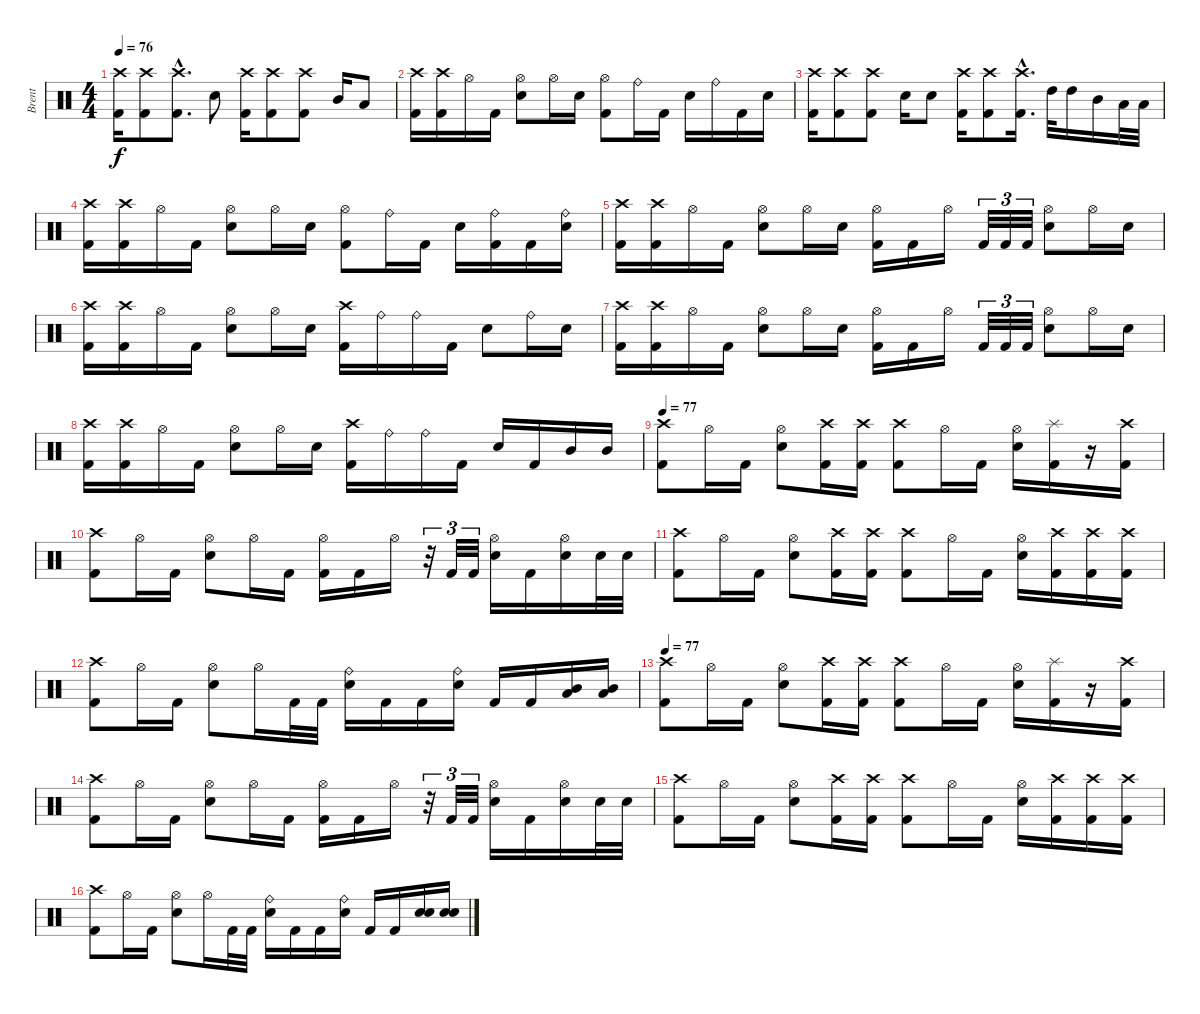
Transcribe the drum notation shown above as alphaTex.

\track ("Brent" "Brent") {instrument percussion}
\staff {score}
\articulation defaults
\ts (4 4)
\tempo 76
\clef neutral
\ks c
("Crash high (hit)" "Kick (hit) 2").16{dy f} ("Crash high (hit)" "Kick (hit) 2").8 ("Crash high (hit)"{hac} "Kick (hit) 2"{hac}).8{d} "Snare (hit) 2".8 ("Crash high (hit)" "Kick (hit) 2").16 ("Crash high (hit)" "Kick (hit) 2").8 ("Crash high (hit)" "Kick (hit) 2").8 "Mid Tom (hit)".16 "Low Tom (hit)".8 |
("Crash high (hit)" "Kick (hit) 2").16 ("Crash high (hit)" "Kick (hit) 2").16 "Hi-Hat (open)".16 "Kick (hit) 2".16 ("Hi-Hat (open)" "Snare (hit) 2").8 "Hi-Hat (open)".16 "Snare (hit) 2".16 ("Hi-Hat (open)" "Kick (hit) 2").8 "Ride (bell)".16 "Kick (hit) 2".16 "Snare (hit) 2".16 "Ride (bell)".16 "Kick (hit) 2".16 "Snare (hit) 2".16 |
("Crash high (hit)" "Kick (hit) 2").16 ("Crash high (hit)" "Kick (hit) 2").8 ("Crash high (hit)" "Kick (hit) 2").8 "Snare (hit) 2".16 "Snare (hit) 2".8 ("Crash high (hit)" "Kick (hit) 2").16 ("Crash high (hit)" "Kick (hit) 2").8 ("Crash high (hit)"{hac} "Kick (hit) 2"{hac}).16{d} "High Tom (hit)".32 "High Tom (hit)".16 "Mid Tom (hit)".16 "Low Tom (hit)".32 "Low Tom (hit)".32 |
("Crash high (hit)" "Kick (hit) 2").16 ("Crash high (hit)" "Kick (hit) 2").16 "Hi-Hat (open)".16 "Kick (hit) 2".16 ("Hi-Hat (open)" "Snare (hit) 2").8 "Hi-Hat (open)".16 "Snare (hit) 2".16 ("Hi-Hat (open)" "Kick (hit) 2").8 "Ride (bell)".16 "Kick (hit) 2".16 "Snare (hit) 2".16 ("Ride (bell)" "Kick (hit) 2").16 "Kick (hit) 2".16 ("Ride (bell)" "Snare (hit) 2").16 |
("Crash high (hit)" "Kick (hit) 2").16 ("Crash high (hit)" "Kick (hit) 2").16 "Hi-Hat (open)".16 "Kick (hit) 2".16 ("Hi-Hat (open)" "Snare (hit) 2").8 "Hi-Hat (open)".16 "Snare (hit) 2".16 ("Hi-Hat (open)" "Kick (hit) 2").16 "Kick (hit) 2".16 "Hi-Hat (open)".16 "Kick (hit) 2".32{tu (3 2)} "Kick (hit) 2".32{tu (3 2)} "Kick (hit) 2".32{tu (3 2)} ("Hi-Hat (open)" "Snare (hit) 2").8 "Hi-Hat (open)".16 "Snare (hit) 2".16 |
("Crash high (hit)" "Kick (hit) 2").16 ("Crash high (hit)" "Kick (hit) 2").16 "Hi-Hat (open)".16 "Kick (hit) 2".16 ("Hi-Hat (open)" "Snare (hit) 2").8 "Hi-Hat (open)".16 "Snare (hit) 2".16 ("Crash high (hit)" "Kick (hit) 2").16 "Ride (bell)".16 "Ride (bell)".16 "Kick (hit) 2".16 "Snare (hit) 2".8 "Ride (bell)".16 "Snare (hit) 2".16 |
("Crash high (hit)" "Kick (hit) 2").16 ("Crash high (hit)" "Kick (hit) 2").16 "Hi-Hat (open)".16 "Kick (hit) 2".16 ("Hi-Hat (open)" "Snare (hit) 2").8 "Hi-Hat (open)".16 "Snare (hit) 2".16 ("Hi-Hat (open)" "Kick (hit) 2").16 "Kick (hit) 2".16 "Hi-Hat (open)".16 "Kick (hit) 2".32{tu (3 2)} "Kick (hit) 2".32{tu (3 2)} "Kick (hit) 2".32{tu (3 2)} ("Hi-Hat (open)" "Snare (hit) 2").8 "Hi-Hat (open)".16 "Snare (hit) 2".16 |
("Crash high (hit)" "Kick (hit) 2").16 ("Crash high (hit)" "Kick (hit) 2").16 "Hi-Hat (open)".16 "Kick (hit) 2".16 ("Hi-Hat (open)" "Snare (hit) 2").8 "Hi-Hat (open)".16 "Snare (hit) 2".16 ("Crash high (hit)" "Kick (hit) 2").16 "Ride (bell)".16 "Ride (bell)".16 "Kick (hit) 2".16 "Snare (hit) 2".16 "Kick (hit) 2".16 "Mid Tom (hit)".16 "Mid Tom (hit)".16 |
\tempo 77
("Crash high (hit)" "Kick (hit) 2").8 "Hi-Hat (open)".16 "Kick (hit) 2".16 ("Hi-Hat (open)" "Snare (hit) 2").8 ("Crash high (hit)" "Kick (hit) 2").16 ("Crash high (hit)" "Kick (hit) 2").16 ("Crash high (hit)" "Kick (hit) 2").8 "Hi-Hat (open)".16 "Kick (hit) 2".16 ("Hi-Hat (open)" "Snare (hit) 2").16 ("Splash (hit)" "Kick (hit) 2").16 r.16 ("Crash high (hit)" "Kick (hit) 2").16 |
("Crash high (hit)" "Kick (hit) 2").8 "Hi-Hat (open)".16 "Kick (hit) 2".16 ("Hi-Hat (open)" "Snare (hit) 2").8 "Hi-Hat (open)".16 "Kick (hit) 2".16 ("Hi-Hat (open)" "Kick (hit) 2").16 "Kick (hit) 2".16 "Hi-Hat (open)".16 r.32{tu (3 2)} "Kick (hit) 2".32{tu (3 2)} "Kick (hit) 2".32{tu (3 2)} ("Hi-Hat (open)" "Snare (hit) 2").16 "Kick (hit) 2".16 ("Hi-Hat (open)" "Snare (hit) 2").16 "Snare (hit) 2".32 "Snare (hit) 2".32 |
("Crash high (hit)" "Kick (hit) 2").8 "Hi-Hat (open)".16 "Kick (hit) 2".16 ("Hi-Hat (open)" "Snare (hit) 2").8 ("Crash high (hit)" "Kick (hit) 2").16 ("Crash high (hit)" "Kick (hit) 2").16 ("Crash high (hit)" "Kick (hit) 2").8 "Hi-Hat (open)".16 "Kick (hit) 2".16 ("Hi-Hat (open)" "Snare (hit) 2").16 ("Crash high (hit)" "Kick (hit) 2").16 ("Crash high (hit)" "Kick (hit) 2").16 ("Crash high (hit)" "Kick (hit) 2").16 |
("Crash high (hit)" "Kick (hit) 2").8 "Hi-Hat (open)".16 "Kick (hit) 2".16 ("Hi-Hat (open)" "Snare (hit) 2").8 "Hi-Hat (open)".16 "Kick (hit) 2".32 "Kick (hit) 2".32 ("Ride (bell)" "Snare (hit) 2").16 "Kick (hit) 2".16 "Kick (hit) 2".16 ("Ride (bell)" "Snare (hit) 2").16 "Kick (hit) 2".16 "Kick (hit) 2".16 ("Low Tom (hit)" "Mid Tom (hit)").16 ("Low Tom (hit)" "Mid Tom (hit)").16 |
\tempo 77
("Crash high (hit)" "Kick (hit) 2").8 "Hi-Hat (open)".16 "Kick (hit) 2".16 ("Hi-Hat (open)" "Snare (hit) 2").8 ("Crash high (hit)" "Kick (hit) 2").16 ("Crash high (hit)" "Kick (hit) 2").16 ("Crash high (hit)" "Kick (hit) 2").8 "Hi-Hat (open)".16 "Kick (hit) 2".16 ("Hi-Hat (open)" "Snare (hit) 2").16 ("Splash (hit)" "Kick (hit) 2").16 r.16 ("Crash high (hit)" "Kick (hit) 2").16 |
("Crash high (hit)" "Kick (hit) 2").8 "Hi-Hat (open)".16 "Kick (hit) 2".16 ("Hi-Hat (open)" "Snare (hit) 2").8 "Hi-Hat (open)".16 "Kick (hit) 2".16 ("Hi-Hat (open)" "Kick (hit) 2").16 "Kick (hit) 2".16 "Hi-Hat (open)".16 r.32{tu (3 2)} "Kick (hit) 2".32{tu (3 2)} "Kick (hit) 2".32{tu (3 2)} ("Hi-Hat (open)" "Snare (hit) 2").16 "Kick (hit) 2".16 ("Hi-Hat (open)" "Snare (hit) 2").16 "Snare (hit) 2".32 "Snare (hit) 2".32 |
("Crash high (hit)" "Kick (hit) 2").8 "Hi-Hat (open)".16 "Kick (hit) 2".16 ("Hi-Hat (open)" "Snare (hit) 2").8 ("Crash high (hit)" "Kick (hit) 2").16 ("Crash high (hit)" "Kick (hit) 2").16 ("Crash high (hit)" "Kick (hit) 2").8 "Hi-Hat (open)".16 "Kick (hit) 2".16 ("Hi-Hat (open)" "Snare (hit) 2").16 ("Crash high (hit)" "Kick (hit) 2").16 ("Crash high (hit)" "Kick (hit) 2").16 ("Crash high (hit)" "Kick (hit) 2").16 |
("Crash high (hit)" "Kick (hit) 2").8 "Hi-Hat (open)".16 "Kick (hit) 2".16 ("Hi-Hat (open)" "Snare (hit) 2").8 "Hi-Hat (open)".16 "Kick (hit) 2".32 "Kick (hit) 2".32 ("Ride (bell)" "Snare (hit) 2").16 "Kick (hit) 2".16 "Kick (hit) 2".16 ("Ride (bell)" "Snare (hit) 2").16 "Kick (hit) 2".16 "Kick (hit) 2".16 ("Snare (hit) 2" "Snare (hit) 2").16 ("Snare (hit) 2" "Snare (hit) 2").16
